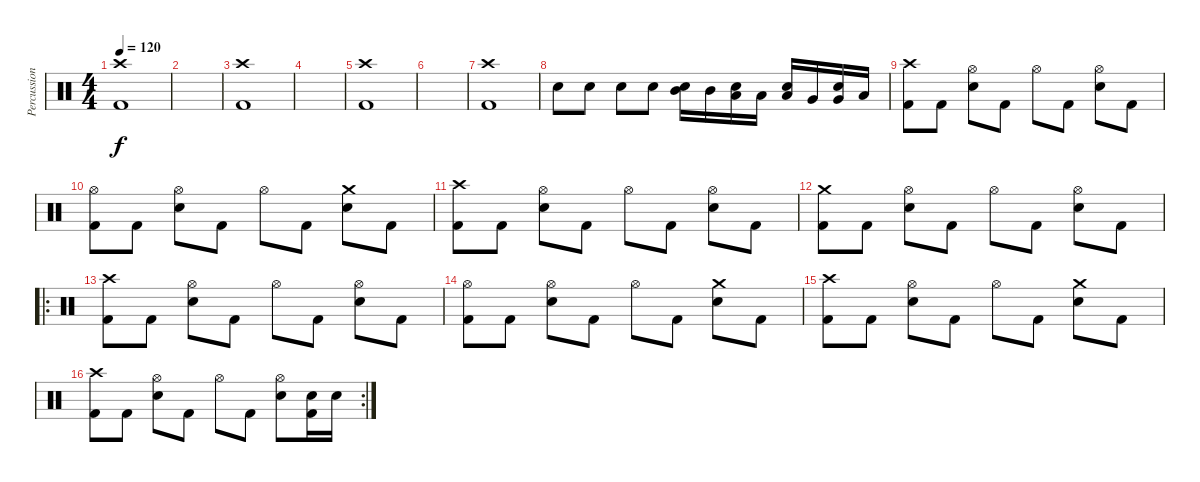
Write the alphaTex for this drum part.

\track ("Percussion" "Percussion") {instrument percussion}
\staff {score}
\articulation defaults
\ts (4 4)
\tempo 120
\clef neutral
\ks c
("Crash high (hit)" "Kick (hit) 2").1{dy f} |
|
("Crash high (hit)" "Kick (hit) 2").1 |
|
("Crash high (hit)" "Kick (hit) 2").1 |
|
("Crash high (hit)" "Kick (hit) 2").1 |
"Snare (hit) 2".8 "Snare (hit) 2".8 "Snare (hit) 2".8 "Snare (hit) 2".8 ("Mid Tom (hit)" "Snare (hit) 2").16 "Mid Tom (hit)".16 ("Low Tom (hit)" "Snare (hit) 2").16 "Low Tom (hit)".16 ("Low Tom (hit)" "Snare (hit) 2").16 "Very Low Tom (hit)".16 ("Very Low Tom (hit)" "Snare (hit) 2").16 "Low Floor Tom (hit)".16 |
("Crash high (hit)" "Kick (hit) 2").8 "Kick (hit) 2".8 ("Hi-Hat (open)" "Snare (hit) 2").8 "Kick (hit) 2".8 "Hi-Hat (open)".8 "Kick (hit) 2".8 ("Hi-Hat (open)" "Snare (hit) 2").8 "Kick (hit) 2".8 |
("Hi-Hat (open)" "Kick (hit) 2").8 "Kick (hit) 2".8 ("Hi-Hat (open)" "Snare (hit) 2").8 "Kick (hit) 2".8 "Hi-Hat (open)".8 "Kick (hit) 2".8 ("Crash medium (hit)" "Snare (hit) 2").8 "Kick (hit) 2".8 |
("Crash high (hit)" "Kick (hit) 2").8 "Kick (hit) 2".8 ("Hi-Hat (open)" "Snare (hit) 2").8 "Kick (hit) 2".8 "Hi-Hat (open)".8 "Kick (hit) 2".8 ("Hi-Hat (open)" "Snare (hit) 2").8 "Kick (hit) 2".8 |
("Crash medium (hit)" "Kick (hit) 2").8 "Kick (hit) 2".8 ("Hi-Hat (open)" "Snare (hit) 2").8 "Kick (hit) 2".8 "Hi-Hat (open)".8 "Kick (hit) 2".8 ("Hi-Hat (open)" "Snare (hit) 2").8 "Kick (hit) 2".8 |
\ro
("Crash high (hit)" "Kick (hit) 2").8 "Kick (hit) 2".8 ("Hi-Hat (open)" "Snare (hit) 2").8 "Kick (hit) 2".8 "Hi-Hat (open)".8 "Kick (hit) 2".8 ("Hi-Hat (open)" "Snare (hit) 2").8 "Kick (hit) 2".8 |
("Hi-Hat (open)" "Kick (hit) 2").8 "Kick (hit) 2".8 ("Hi-Hat (open)" "Snare (hit) 2").8 "Kick (hit) 2".8 "Hi-Hat (open)".8 "Kick (hit) 2".8 ("Crash medium (hit)" "Snare (hit) 2").8 "Kick (hit) 2".8 |
("Crash high (hit)" "Kick (hit) 2").8 "Kick (hit) 2".8 ("Hi-Hat (open)" "Snare (hit) 2").8 "Kick (hit) 2".8 "Hi-Hat (open)".8 "Kick (hit) 2".8 ("Crash medium (hit)" "Snare (hit) 2").8 "Kick (hit) 2".8 |
\rc 2
("Crash high (hit)" "Kick (hit) 2").8 "Kick (hit) 2".8 ("Hi-Hat (open)" "Snare (hit) 2").8 "Kick (hit) 2".8 "Hi-Hat (open)".8 "Kick (hit) 2".8 ("Hi-Hat (open)" "Snare (hit) 2").8 ("Snare (hit) 2" "Kick (hit) 2").16 "Snare (hit) 2".16
